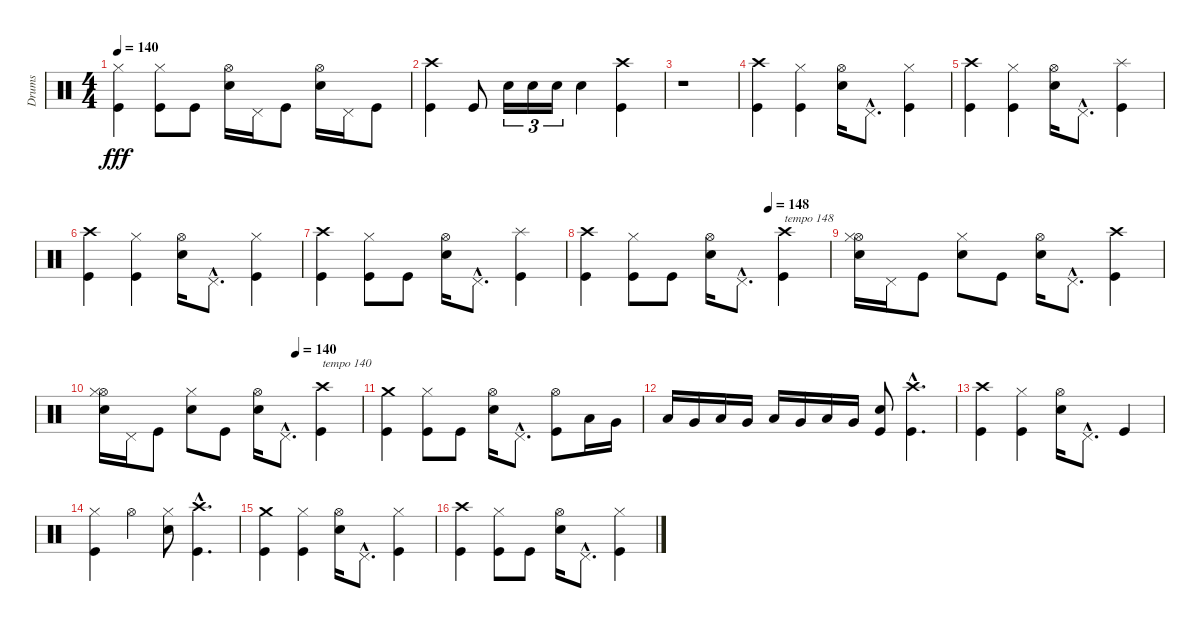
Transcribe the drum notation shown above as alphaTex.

\track ("Drums" "Drums") {instrument percussion}
\staff {score}
\articulation defaults
\ts (4 4)
\tempo 140
\clef neutral
\ks c
("Hi-Hat (closed)" "Kick (hit)").4{dy fff} ("Hi-Hat (closed)" "Kick (hit)").8 "Kick (hit)".8 ("Hi-Hat (open)" "Electric Snare (hit)").16 "Pedal Hi-Hat (hit)".16 "Kick (hit)".8 ("Hi-Hat (open)" "Electric Snare (hit)").16 "Pedal Hi-Hat (hit)".16 "Kick (hit)".8 |
("Crash high (hit)" "Kick (hit)").4 "Kick (hit)".8 "Electric Snare (hit)".16{tu (3 2)} "Electric Snare (hit)".16{tu (3 2)} "Electric Snare (hit)".16{tu (3 2)} "Electric Snare (hit)".4 ("Crash high (hit)" "Kick (hit)").4 |
r.1 |
("Crash high (hit)" "Kick (hit)").4 ("Hi-Hat (closed)" "Kick (hit)").4 ("Hi-Hat (open)" "Electric Snare (hit)").16 "Pedal Hi-Hat (hit)"{hac}.8{d} ("Hi-Hat (closed)" "Kick (hit)").4 |
("Crash high (hit)" "Kick (hit)").4 ("Hi-Hat (closed)" "Kick (hit)").4 ("Hi-Hat (open)" "Electric Snare (hit)").16 "Pedal Hi-Hat (hit)"{hac}.8{d} ("Splash (hit)" "Kick (hit)").4 |
("Crash high (hit)" "Kick (hit)").4 ("Hi-Hat (closed)" "Kick (hit)").4 ("Hi-Hat (open)" "Electric Snare (hit)").16 "Pedal Hi-Hat (hit)"{hac}.8{d} ("Hi-Hat (closed)" "Kick (hit)").4 |
("Crash high (hit)" "Kick (hit)").4 ("Hi-Hat (closed)" "Kick (hit)").8 "Kick (hit)".8 ("Hi-Hat (open)" "Electric Snare (hit)").16 "Pedal Hi-Hat (hit)"{hac}.8{d} ("Splash (hit)" "Kick (hit)").4 |
\tempo (148 0.75)
("Crash high (hit)" "Kick (hit)").4 ("Hi-Hat (closed)" "Kick (hit)").8 "Kick (hit)".8 ("Hi-Hat (open)" "Electric Snare (hit)").16 "Pedal Hi-Hat (hit)"{hac}.8{d} ("Crash high (hit)" "Kick (hit)").4{txt "tempo 148"} |
("Hi-Hat (open)" "Hi-Hat (closed)" "Electric Snare (hit)").16 "Pedal Hi-Hat (hit)".16 "Kick (hit)".8 ("Hi-Hat (closed)" "Electric Snare (hit)").8 "Kick (hit)".8 ("Hi-Hat (open)" "Electric Snare (hit)").16 "Pedal Hi-Hat (hit)"{hac}.8{d} ("Crash high (hit)" "Kick (hit)").4 |
\tempo (140 0.75)
("Hi-Hat (open)" "Hi-Hat (closed)" "Electric Snare (hit)").16 "Pedal Hi-Hat (hit)".16 "Kick (hit)".8 ("Hi-Hat (closed)" "Electric Snare (hit)").8 "Kick (hit)".8 ("Hi-Hat (open)" "Electric Snare (hit)").16 "Pedal Hi-Hat (hit)"{hac}.8{d} ("Crash high (hit)" "Kick (hit)").4{txt "tempo 140"} |
("Crash medium (hit)" "Kick (hit)").4 ("Hi-Hat (closed)" "Kick (hit)").8 "Kick (hit)".8 ("Hi-Hat (open)" "Electric Snare (hit)").16 "Pedal Hi-Hat (hit)"{hac}.8{d} ("Hi-Hat (open)" "Kick (hit)").8 "Low Tom (hit)".16 "Very Low Tom (hit)".16 |
"Low Tom (hit)".16 "Very Low Tom (hit)".16 "Low Tom (hit)".16 "Very Low Tom (hit)".16 "Low Tom (hit)".16 "Very Low Tom (hit)".16 "Low Tom (hit)".16 "Very Low Tom (hit)".16 ("Electric Snare (hit)" "Kick (hit)").8 ("Crash high (hit)"{hac} "Kick (hit)"{hac}).4{d} |
("Crash high (hit)" "Kick (hit)").4 ("Hi-Hat (closed)" "Kick (hit)").4 ("Hi-Hat (open)" "Electric Snare (hit)").16 "Pedal Hi-Hat (hit)"{hac}.8{d} "Kick (hit)".4 |
("Hi-Hat (closed)" "Kick (hit)").4 "Hi-Hat (open)".4 ("Hi-Hat (closed)" "Electric Snare (hit)").8 ("Crash high (hit)"{hac} "Kick (hit)"{hac}).4{d} |
("Crash medium (hit)" "Kick (hit)").4 ("Hi-Hat (closed)" "Kick (hit)").4 ("Hi-Hat (open)" "Electric Snare (hit)").16 "Pedal Hi-Hat (hit)"{hac}.8{d} ("Hi-Hat (closed)" "Kick (hit)").4 |
("Crash high (hit)" "Kick (hit)").4 ("Hi-Hat (closed)" "Kick (hit)").8 "Kick (hit)".8 ("Hi-Hat (open)" "Electric Snare (hit)").16 "Pedal Hi-Hat (hit)"{hac}.8{d} ("Hi-Hat (closed)" "Kick (hit)").4
